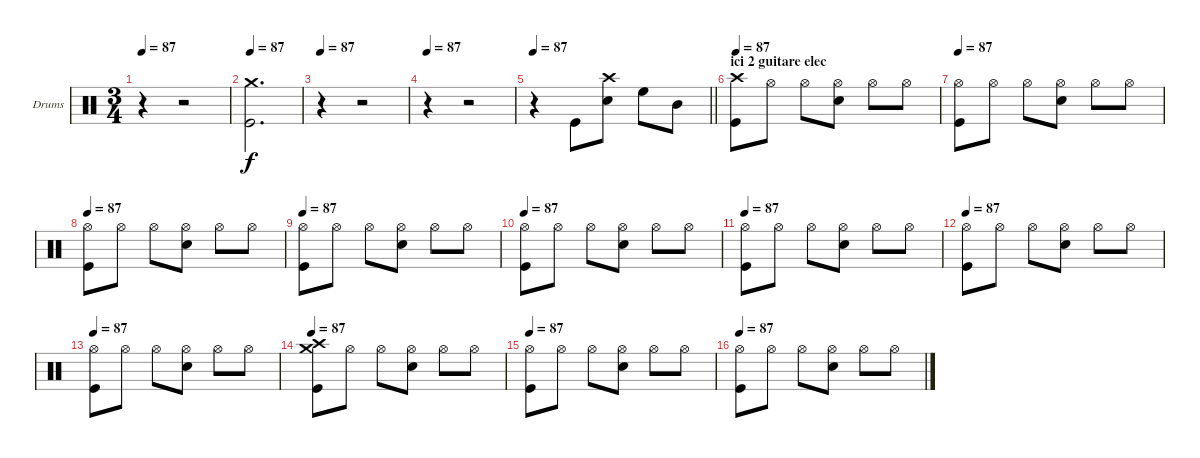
\bracketExtendMode groupsimilarinstruments
\firstSystemTrackNameOrientation horizontal
\otherSystemsTrackNameOrientation horizontal
\track ("Drumkit" "Drums") {instrument percussion}
\staff {score}
\articulation defaults
\ts (3 4)
\tempo 87
\clef neutral
\ks c
r.4{dy f} r.2 |
\tempo 87
("Crash medium (hit)" "Kick (hit)").2{d} |
\tempo 87
r.4 r.2 |
\tempo 87
r.4 r.2 |
\tempo 87
\barLineRight lightlight
r.4 "Kick (hit)".8 ("Crash high (hit)" "Snare (hit) 2").8 "High Floor Tom (hit)".8 "Mid Tom (hit)".8 |
\section ("" "ici 2 guitare elec")
\tempo 87
("Crash high (hit)" "Kick (hit)").8 "Hi-Hat (open)".8 "Hi-Hat (open)".8 ("Hi-Hat (open)" "Snare (hit) 2").8 "Hi-Hat (open)".8 "Hi-Hat (open)".8 |
\tempo 87
("Hi-Hat (open)" "Kick (hit)").8 "Hi-Hat (open)".8 "Hi-Hat (open)".8 ("Hi-Hat (open)" "Snare (hit) 2").8 "Hi-Hat (open)".8 "Hi-Hat (open)".8 |
\tempo 87
("Hi-Hat (open)" "Kick (hit)").8 "Hi-Hat (open)".8 "Hi-Hat (open)".8 ("Hi-Hat (open)" "Snare (hit) 2").8 "Hi-Hat (open)".8 "Hi-Hat (open)".8 |
\tempo 87
("Hi-Hat (open)" "Kick (hit)").8 "Hi-Hat (open)".8 "Hi-Hat (open)".8 ("Hi-Hat (open)" "Snare (hit) 2").8 "Hi-Hat (open)".8 "Hi-Hat (open)".8 |
\tempo 87
("Hi-Hat (open)" "Kick (hit)").8 "Hi-Hat (open)".8 "Hi-Hat (open)".8 ("Hi-Hat (open)" "Snare (hit) 2").8 "Hi-Hat (open)".8 "Hi-Hat (open)".8 |
\tempo 87
("Hi-Hat (open)" "Kick (hit)").8 "Hi-Hat (open)".8 "Hi-Hat (open)".8 ("Hi-Hat (open)" "Snare (hit) 2").8 "Hi-Hat (open)".8 "Hi-Hat (open)".8 |
\tempo 87
("Hi-Hat (open)" "Kick (hit)").8 "Hi-Hat (open)".8 "Hi-Hat (open)".8 ("Hi-Hat (open)" "Snare (hit) 2").8 "Hi-Hat (open)".8 "Hi-Hat (open)".8 |
\tempo 87
("Hi-Hat (open)" "Kick (hit)").8 "Hi-Hat (open)".8 "Hi-Hat (open)".8 ("Hi-Hat (open)" "Snare (hit) 2").8 "Hi-Hat (open)".8 "Hi-Hat (open)".8 |
\tempo 87
("Crash medium (hit)" "Crash high (hit)" "Kick (hit)").8 "Hi-Hat (open)".8 "Hi-Hat (open)".8 ("Hi-Hat (open)" "Snare (hit) 2").8 "Hi-Hat (open)".8 "Hi-Hat (open)".8 |
\tempo 87
("Hi-Hat (open)" "Kick (hit)").8 "Hi-Hat (open)".8 "Hi-Hat (open)".8 ("Hi-Hat (open)" "Snare (hit) 2").8 "Hi-Hat (open)".8 "Hi-Hat (open)".8 |
\tempo 87
("Hi-Hat (open)" "Kick (hit)").8 "Hi-Hat (open)".8 "Hi-Hat (open)".8 ("Hi-Hat (open)" "Snare (hit) 2").8 "Hi-Hat (open)".8 "Hi-Hat (open)".8
